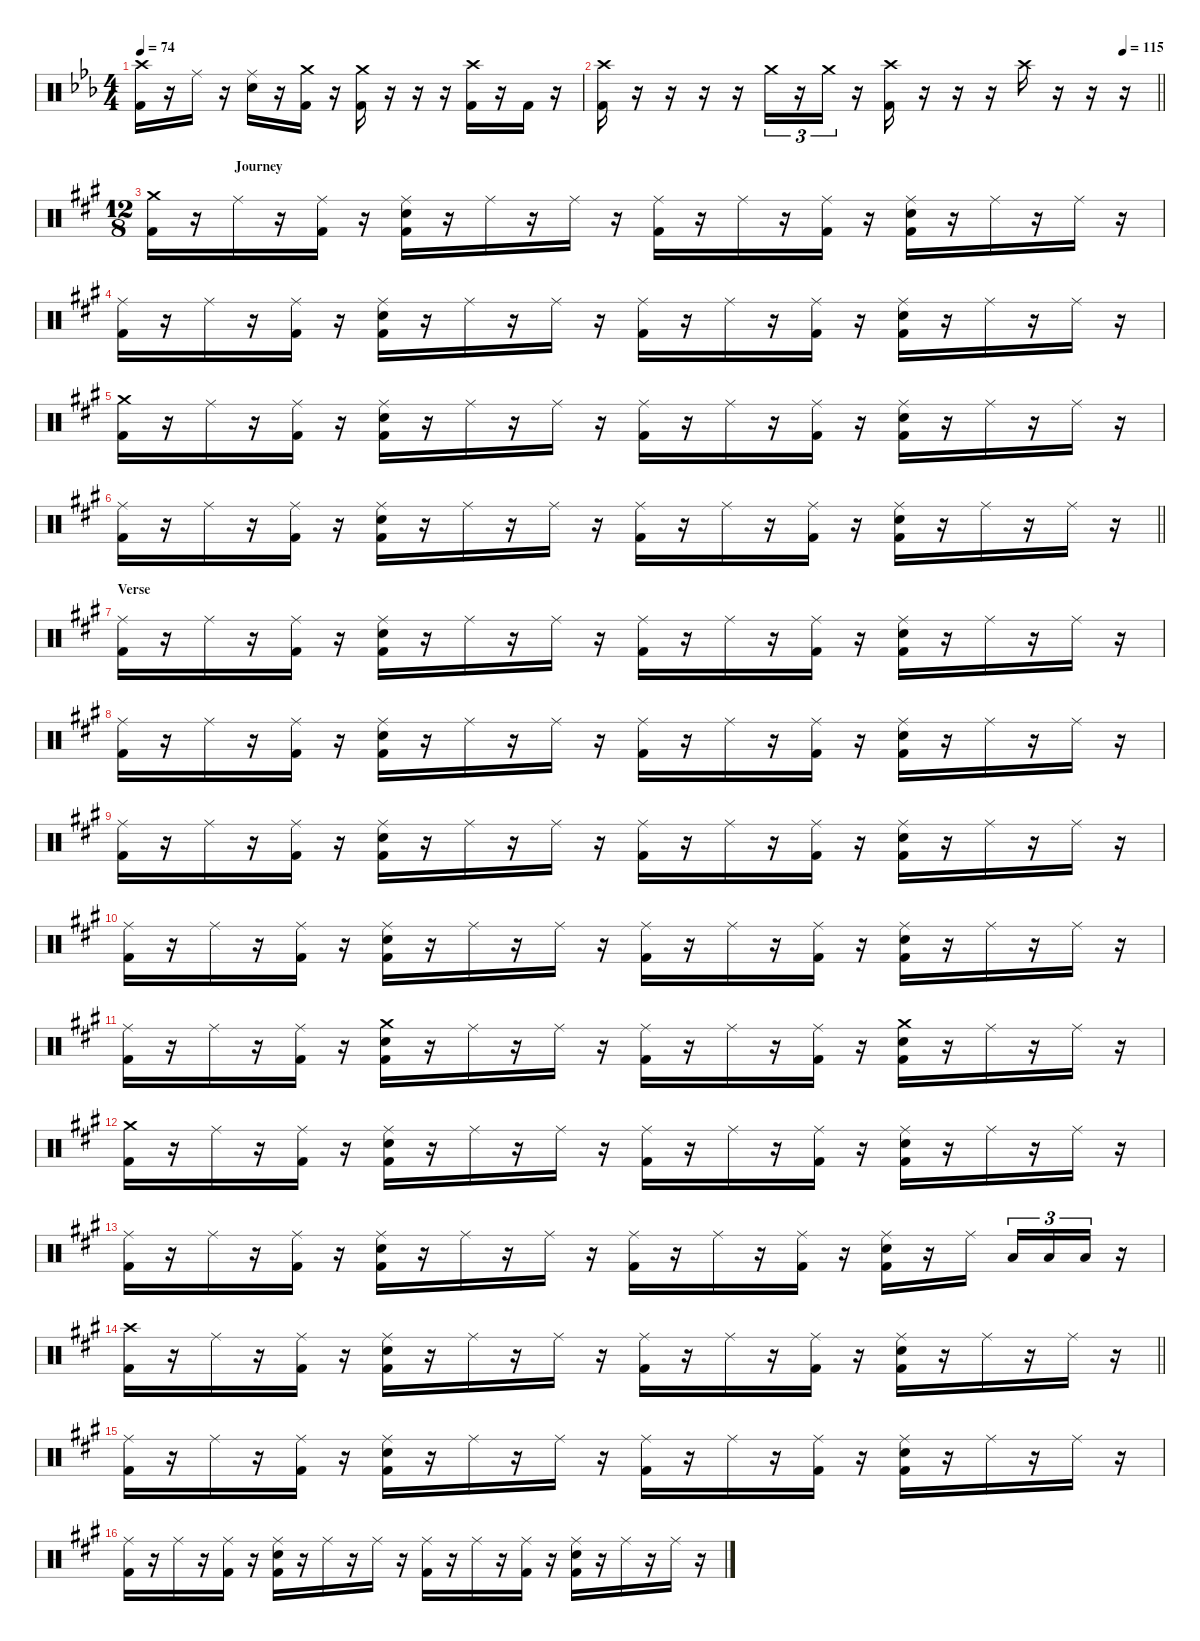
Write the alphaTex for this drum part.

\defaultSystemsLayout 4
\hideDynamics
\bracketExtendMode nobrackets
\singleTrackTrackNamePolicy hidden
\multiTrackTrackNamePolicy hidden
\firstSystemTrackNameMode fullname
\otherSystemsTrackNameOrientation horizontal
\track ("DRUMS" "drm.") {instrument percussion}
\staff {score}
\articulation defaults
\ts (4 4)
\tempo 74
\clef neutral
\ks eb
("Crash high (hit)"{acc forcenatural} "Kick (hit) 2"{acc forcenatural}).16{dy f beam Down} r.16{beam Down} "Ride (middle)"{acc forcenatural}.16{beam Down} r.16{beam Down} ("Ride (middle)"{acc forcenatural} "Snare (hit) 2"{acc forcenatural}).16{beam Down} r.16{beam Down} ("Crash medium (hit)"{acc forcenatural} "Kick (hit) 2"{acc forcenatural}).16{dy ff beam Down} r.16{beam Down} ("Crash medium (hit)"{acc forcenatural} "Kick (hit) 2"{acc forcenatural}).16{dy f beam Down} r.16{beam Down} r.16{beam Down} r.16{beam Down} ("Crash high (hit)"{acc forcenatural} "Kick (hit) 2"{acc forcenatural}).16{beam Down} r.16{beam Down} "Kick (hit) 2"{acc forcenatural}.16{dy ff beam Down} r.16{beam Down} |
\tempo (115 0.9375)
\barLineRight lightlight
("Crash high (hit)"{acc forcenatural} "Kick (hit) 2"{acc forcenatural}).16{dy f beam Down} r.16{beam Down} r.16{beam Down} r.16{beam Down} r.16{beam Down} "Crash medium (hit)"{acc forcenatural}.16{tu (3 2) dy ff beam Down} r.16{tu (3 2) beam Down} "Crash medium (hit)"{acc forcenatural}.16{tu (3 2) beam Down} r.16{beam Down} ("Crash high (hit)"{acc forcenatural} "Kick (hit) 2"{acc forcenatural}).16{dy f beam Down} r.16{beam Down} r.16{beam Down} r.16{beam Down} "Crash high (hit)"{acc forcenatural}.16{dy ff beam Down} r.16{beam Down} r.16{beam Down} r.16{beam Down} |
\ts (12 8)
\beaming (8 3 3 3 3)
\section ("" "                         Journey")
\ks a
("Crash medium (hit)"{acc forcenatural} "Kick (hit) 2"{acc forcenatural}).16{dy f beam Down} r.16{beam Down} "Ride (middle)"{acc forcenatural}.16{dy ff beam Down} r.16{beam Down} ("Ride (middle)"{acc forcenatural} "Kick (hit) 2"{acc forcenatural}).16{beam Down} r.16{beam Down} ("Ride (middle)"{acc forcenatural} "Snare (hit) 2"{acc forcenatural} "Kick (hit) 2"{acc forcenatural}).16{dy f beam Down} r.16{beam Down} "Ride (middle)"{acc forcenatural}.16{dy ff beam Down} r.16{beam Down} "Ride (middle)"{acc forcenatural}.16{beam Down} r.16{beam Down} ("Ride (middle)"{acc forcenatural} "Kick (hit) 2"{acc forcenatural}).16{dy f beam Down} r.16{beam Down} "Ride (middle)"{acc forcenatural}.16{dy ff beam Down} r.16{beam Down} ("Ride (middle)"{acc forcenatural} "Kick (hit) 2"{acc forcenatural}).16{beam Down} r.16{beam Down} ("Ride (middle)"{acc forcenatural} "Snare (hit) 2"{acc forcenatural} "Kick (hit) 2"{acc forcenatural}).16{dy f beam Down} r.16{beam Down} "Ride (middle)"{acc forcenatural}.16{dy ff beam Down} r.16{beam Down} "Ride (middle)"{acc forcenatural}.16{beam Down} r.16{beam Down} |
("Ride (middle)"{acc forcenatural} "Kick (hit) 2"{acc forcenatural}).16{dy f beam Down} r.16{beam Down} "Ride (middle)"{acc forcenatural}.16{dy ff beam Down} r.16{beam Down} ("Ride (middle)"{acc forcenatural} "Kick (hit) 2"{acc forcenatural}).16{beam Down} r.16{beam Down} ("Ride (middle)"{acc forcenatural} "Snare (hit) 2"{acc forcenatural} "Kick (hit) 2"{acc forcenatural}).16{dy f beam Down} r.16{beam Down} "Ride (middle)"{acc forcenatural}.16{dy ff beam Down} r.16{beam Down} "Ride (middle)"{acc forcenatural}.16{beam Down} r.16{beam Down} ("Ride (middle)"{acc forcenatural} "Kick (hit) 2"{acc forcenatural}).16{dy f beam Down} r.16{beam Down} "Ride (middle)"{acc forcenatural}.16{dy ff beam Down} r.16{beam Down} ("Ride (middle)"{acc forcenatural} "Kick (hit) 2"{acc forcenatural}).16{beam Down} r.16{beam Down} ("Ride (middle)"{acc forcenatural} "Snare (hit) 2"{acc forcenatural} "Kick (hit) 2"{acc forcenatural}).16{dy f beam Down} r.16{beam Down} "Ride (middle)"{acc forcenatural}.16{dy ff beam Down} r.16{beam Down} "Ride (middle)"{acc forcenatural}.16{beam Down} r.16{beam Down} |
("Crash medium (hit)"{acc forcenatural} "Kick (hit) 2"{acc forcenatural}).16{dy f beam Down} r.16{beam Down} "Ride (middle)"{acc forcenatural}.16{dy ff beam Down} r.16{beam Down} ("Ride (middle)"{acc forcenatural} "Kick (hit) 2"{acc forcenatural}).16{beam Down} r.16{beam Down} ("Ride (middle)"{acc forcenatural} "Snare (hit) 2"{acc forcenatural} "Kick (hit) 2"{acc forcenatural}).16{dy f beam Down} r.16{beam Down} "Ride (middle)"{acc forcenatural}.16{dy ff beam Down} r.16{beam Down} "Ride (middle)"{acc forcenatural}.16{beam Down} r.16{beam Down} ("Ride (middle)"{acc forcenatural} "Kick (hit) 2"{acc forcenatural}).16{dy f beam Down} r.16{beam Down} "Ride (middle)"{acc forcenatural}.16{dy ff beam Down} r.16{beam Down} ("Ride (middle)"{acc forcenatural} "Kick (hit) 2"{acc forcenatural}).16{beam Down} r.16{beam Down} ("Ride (middle)"{acc forcenatural} "Snare (hit) 2"{acc forcenatural} "Kick (hit) 2"{acc forcenatural}).16{dy f beam Down} r.16{beam Down} "Ride (middle)"{acc forcenatural}.16{dy ff beam Down} r.16{beam Down} "Ride (middle)"{acc forcenatural}.16{beam Down} r.16{beam Down} |
\barLineRight lightlight
("Ride (middle)"{acc forcenatural} "Kick (hit) 2"{acc forcenatural}).16{dy f beam Down} r.16{beam Down} "Ride (middle)"{acc forcenatural}.16{dy ff beam Down} r.16{beam Down} ("Ride (middle)"{acc forcenatural} "Kick (hit) 2"{acc forcenatural}).16{beam Down} r.16{beam Down} ("Ride (middle)"{acc forcenatural} "Snare (hit) 2"{acc forcenatural} "Kick (hit) 2"{acc forcenatural}).16{dy f beam Down} r.16{beam Down} "Ride (middle)"{acc forcenatural}.16{dy ff beam Down} r.16{beam Down} "Ride (middle)"{acc forcenatural}.16{beam Down} r.16{beam Down} ("Ride (middle)"{acc forcenatural} "Kick (hit) 2"{acc forcenatural}).16{dy f beam Down} r.16{beam Down} "Ride (middle)"{acc forcenatural}.16{dy ff beam Down} r.16{beam Down} ("Ride (middle)"{acc forcenatural} "Kick (hit) 2"{acc forcenatural}).16{beam Down} r.16{beam Down} ("Ride (middle)"{acc forcenatural} "Snare (hit) 2"{acc forcenatural} "Kick (hit) 2"{acc forcenatural}).16{dy f beam Down} r.16{beam Down} "Ride (middle)"{acc forcenatural}.16{dy ff beam Down} r.16{beam Down} "Ride (middle)"{acc forcenatural}.16{beam Down} r.16{beam Down} |
\section ("" "Verse")
("Ride (middle)"{acc forcenatural} "Kick (hit) 2"{acc forcenatural}).16{dy f beam Down} r.16{beam Down} "Ride (middle)"{acc forcenatural}.16{dy ff beam Down} r.16{beam Down} ("Ride (middle)"{acc forcenatural} "Kick (hit) 2"{acc forcenatural}).16{beam Down} r.16{beam Down} ("Ride (middle)"{acc forcenatural} "Snare (hit) 2"{acc forcenatural} "Kick (hit) 2"{acc forcenatural}).16{dy f beam Down} r.16{beam Down} "Ride (middle)"{acc forcenatural}.16{dy ff beam Down} r.16{beam Down} "Ride (middle)"{acc forcenatural}.16{beam Down} r.16{beam Down} ("Ride (middle)"{acc forcenatural} "Kick (hit) 2"{acc forcenatural}).16{dy f beam Down} r.16{beam Down} "Ride (middle)"{acc forcenatural}.16{dy ff beam Down} r.16{beam Down} ("Ride (middle)"{acc forcenatural} "Kick (hit) 2"{acc forcenatural}).16{beam Down} r.16{beam Down} ("Ride (middle)"{acc forcenatural} "Snare (hit) 2"{acc forcenatural} "Kick (hit) 2"{acc forcenatural}).16{dy f beam Down} r.16{beam Down} "Ride (middle)"{acc forcenatural}.16{dy ff beam Down} r.16{beam Down} "Ride (middle)"{acc forcenatural}.16{beam Down} r.16{beam Down} |
("Ride (middle)"{acc forcenatural} "Kick (hit) 2"{acc forcenatural}).16{dy f beam Down} r.16{beam Down} "Ride (middle)"{acc forcenatural}.16{dy ff beam Down} r.16{beam Down} ("Ride (middle)"{acc forcenatural} "Kick (hit) 2"{acc forcenatural}).16{beam Down} r.16{beam Down} ("Ride (middle)"{acc forcenatural} "Snare (hit) 2"{acc forcenatural} "Kick (hit) 2"{acc forcenatural}).16{dy f beam Down} r.16{beam Down} "Ride (middle)"{acc forcenatural}.16{dy ff beam Down} r.16{beam Down} "Ride (middle)"{acc forcenatural}.16{beam Down} r.16{beam Down} ("Ride (middle)"{acc forcenatural} "Kick (hit) 2"{acc forcenatural}).16{dy f beam Down} r.16{beam Down} "Ride (middle)"{acc forcenatural}.16{dy ff beam Down} r.16{beam Down} ("Ride (middle)"{acc forcenatural} "Kick (hit) 2"{acc forcenatural}).16{beam Down} r.16{beam Down} ("Ride (middle)"{acc forcenatural} "Snare (hit) 2"{acc forcenatural} "Kick (hit) 2"{acc forcenatural}).16{dy f beam Down} r.16{beam Down} "Ride (middle)"{acc forcenatural}.16{dy ff beam Down} r.16{beam Down} "Ride (middle)"{acc forcenatural}.16{beam Down} r.16{beam Down} |
("Ride (middle)"{acc forcenatural} "Kick (hit) 2"{acc forcenatural}).16{dy f beam Down} r.16{beam Down} "Ride (middle)"{acc forcenatural}.16{dy ff beam Down} r.16{beam Down} ("Ride (middle)"{acc forcenatural} "Kick (hit) 2"{acc forcenatural}).16{beam Down} r.16{beam Down} ("Ride (middle)"{acc forcenatural} "Snare (hit) 2"{acc forcenatural} "Kick (hit) 2"{acc forcenatural}).16{dy f beam Down} r.16{beam Down} "Ride (middle)"{acc forcenatural}.16{dy ff beam Down} r.16{beam Down} "Ride (middle)"{acc forcenatural}.16{beam Down} r.16{beam Down} ("Ride (middle)"{acc forcenatural} "Kick (hit) 2"{acc forcenatural}).16{dy f beam Down} r.16{beam Down} "Ride (middle)"{acc forcenatural}.16{dy ff beam Down} r.16{beam Down} ("Ride (middle)"{acc forcenatural} "Kick (hit) 2"{acc forcenatural}).16{beam Down} r.16{beam Down} ("Ride (middle)"{acc forcenatural} "Snare (hit) 2"{acc forcenatural} "Kick (hit) 2"{acc forcenatural}).16{dy f beam Down} r.16{beam Down} "Ride (middle)"{acc forcenatural}.16{dy ff beam Down} r.16{beam Down} "Ride (middle)"{acc forcenatural}.16{beam Down} r.16{beam Down} |
("Ride (middle)"{acc forcenatural} "Kick (hit) 2"{acc forcenatural}).16{dy f beam Down} r.16{beam Down} "Ride (middle)"{acc forcenatural}.16{dy ff beam Down} r.16{beam Down} ("Ride (middle)"{acc forcenatural} "Kick (hit) 2"{acc forcenatural}).16{beam Down} r.16{beam Down} ("Ride (middle)"{acc forcenatural} "Snare (hit) 2"{acc forcenatural} "Kick (hit) 2"{acc forcenatural}).16{dy f beam Down} r.16{beam Down} "Ride (middle)"{acc forcenatural}.16{dy ff beam Down} r.16{beam Down} "Ride (middle)"{acc forcenatural}.16{beam Down} r.16{beam Down} ("Ride (middle)"{acc forcenatural} "Kick (hit) 2"{acc forcenatural}).16{dy f beam Down} r.16{beam Down} "Ride (middle)"{acc forcenatural}.16{dy ff beam Down} r.16{beam Down} ("Ride (middle)"{acc forcenatural} "Kick (hit) 2"{acc forcenatural}).16{beam Down} r.16{beam Down} ("Ride (middle)"{acc forcenatural} "Snare (hit) 2"{acc forcenatural} "Kick (hit) 2"{acc forcenatural}).16{dy f beam Down} r.16{beam Down} "Ride (middle)"{acc forcenatural}.16{dy ff beam Down} r.16{beam Down} "Ride (middle)"{acc forcenatural}.16{beam Down} r.16{beam Down} |
("Ride (middle)"{acc forcenatural} "Kick (hit) 2"{acc forcenatural}).16{dy f beam Down} r.16{beam Down} "Ride (middle)"{acc forcenatural}.16{dy ff beam Down} r.16{beam Down} ("Ride (middle)"{acc forcenatural} "Kick (hit) 2"{acc forcenatural}).16{beam Down} r.16{beam Down} ("Crash medium (hit)"{acc forcenatural} "Snare (hit) 2"{acc forcenatural} "Kick (hit) 2"{acc forcenatural}).16{dy f beam Down} r.16{beam Down} "Ride (middle)"{acc forcenatural}.16{dy ff beam Down} r.16{beam Down} "Ride (middle)"{acc forcenatural}.16{beam Down} r.16{beam Down} ("Ride (middle)"{acc forcenatural} "Kick (hit) 2"{acc forcenatural}).16{dy f beam Down} r.16{beam Down} "Ride (middle)"{acc forcenatural}.16{dy ff beam Down} r.16{beam Down} ("Ride (middle)"{acc forcenatural} "Kick (hit) 2"{acc forcenatural}).16{beam Down} r.16{beam Down} ("Crash medium (hit)"{acc forcenatural} "Snare (hit) 2"{acc forcenatural} "Kick (hit) 2"{acc forcenatural}).16{dy f beam Down} r.16{beam Down} "Ride (middle)"{acc forcenatural}.16{dy ff beam Down} r.16{beam Down} "Ride (middle)"{acc forcenatural}.16{beam Down} r.16{beam Down} |
("Crash medium (hit)"{acc forcenatural} "Kick (hit) 2"{acc forcenatural}).16{dy f beam Down} r.16{beam Down} "Ride (middle)"{acc forcenatural}.16{dy ff beam Down} r.16{beam Down} ("Ride (middle)"{acc forcenatural} "Kick (hit) 2"{acc forcenatural}).16{beam Down} r.16{beam Down} ("Ride (middle)"{acc forcenatural} "Snare (hit) 2"{acc forcenatural} "Kick (hit) 2"{acc forcenatural}).16{dy f beam Down} r.16{beam Down} "Ride (middle)"{acc forcenatural}.16{dy ff beam Down} r.16{beam Down} "Ride (middle)"{acc forcenatural}.16{beam Down} r.16{beam Down} ("Ride (middle)"{acc forcenatural} "Kick (hit) 2"{acc forcenatural}).16{dy f beam Down} r.16{beam Down} "Ride (middle)"{acc forcenatural}.16{dy ff beam Down} r.16{beam Down} ("Ride (middle)"{acc forcenatural} "Kick (hit) 2"{acc forcenatural}).16{beam Down} r.16{beam Down} ("Ride (middle)"{acc forcenatural} "Snare (hit) 2"{acc forcenatural} "Kick (hit) 2"{acc forcenatural}).16{dy f beam Down} r.16{beam Down} "Ride (middle)"{acc forcenatural}.16{dy ff beam Down} r.16{beam Down} "Ride (middle)"{acc forcenatural}.16{beam Down} r.16{beam Down} |
("Ride (middle)"{acc forcenatural} "Kick (hit) 2"{acc forcenatural}).16{dy f beam Down} r.16{beam Down} "Ride (middle)"{acc forcenatural}.16{dy ff beam Down} r.16{beam Down} ("Ride (middle)"{acc forcenatural} "Kick (hit) 2"{acc forcenatural}).16{beam Down} r.16{beam Down} ("Ride (middle)"{acc forcenatural} "Snare (hit) 2"{acc forcenatural} "Kick (hit) 2"{acc forcenatural}).16{dy f beam Down} r.16{beam Down} "Ride (middle)"{acc forcenatural}.16{dy ff beam Down} r.16{beam Down} "Ride (middle)"{acc forcenatural}.16{beam Down} r.16{beam Down} ("Ride (middle)"{acc forcenatural} "Kick (hit) 2"{acc forcenatural}).16{dy f beam Down} r.16{beam Down} "Ride (middle)"{acc forcenatural}.16{dy ff beam Down} r.16{beam Down} ("Ride (middle)"{acc forcenatural} "Kick (hit) 2"{acc forcenatural}).16{beam Down} r.16{beam Down} ("Ride (middle)"{acc forcenatural} "Snare (hit) 2"{acc forcenatural} "Kick (hit) 2"{acc forcenatural}).16{dy f beam Down} r.16{beam Down} "Ride (middle)"{acc forcenatural}.16{dy ff beam Down} "Low Tom (hit)"{acc forcenatural}.16{tu (3 2) beam Up} "Low Tom (hit)"{acc forcenatural}.16{tu (3 2) dy f beam Up} "Low Tom (hit)"{acc forcenatural}.16{tu (3 2) beam Up} r.16{beam Up} |
\barLineRight lightlight
("Crash high (hit)"{acc forcenatural} "Kick (hit) 2"{acc forcenatural}).16{beam Down} r.16{beam Down} "Ride (middle)"{acc forcenatural}.16{dy ff beam Down} r.16{beam Down} ("Ride (middle)"{acc forcenatural} "Kick (hit) 2"{acc forcenatural}).16{beam Down} r.16{beam Down} ("Ride (middle)"{acc forcenatural} "Snare (hit) 2"{acc forcenatural} "Kick (hit) 2"{acc forcenatural}).16{dy f beam Down} r.16{beam Down} "Ride (middle)"{acc forcenatural}.16{dy ff beam Down} r.16{beam Down} "Ride (middle)"{acc forcenatural}.16{beam Down} r.16{beam Down} ("Ride (middle)"{acc forcenatural} "Kick (hit) 2"{acc forcenatural}).16{dy f beam Down} r.16{beam Down} "Ride (middle)"{acc forcenatural}.16{dy ff beam Down} r.16{beam Down} ("Ride (middle)"{acc forcenatural} "Kick (hit) 2"{acc forcenatural}).16{beam Down} r.16{beam Down} ("Ride (middle)"{acc forcenatural} "Snare (hit) 2"{acc forcenatural} "Kick (hit) 2"{acc forcenatural}).16{dy f beam Down} r.16{beam Down} "Ride (middle)"{acc forcenatural}.16{dy ff beam Down} r.16{beam Down} "Ride (middle)"{acc forcenatural}.16{beam Down} r.16{beam Down} |
("Ride (middle)"{acc forcenatural} "Kick (hit) 2"{acc forcenatural}).16{dy f beam Down} r.16{beam Down} "Ride (middle)"{acc forcenatural}.16{dy ff beam Down} r.16{beam Down} ("Ride (middle)"{acc forcenatural} "Kick (hit) 2"{acc forcenatural}).16{beam Down} r.16{beam Down} ("Ride (middle)"{acc forcenatural} "Snare (hit) 2"{acc forcenatural} "Kick (hit) 2"{acc forcenatural}).16{dy f beam Down} r.16{beam Down} "Ride (middle)"{acc forcenatural}.16{dy ff beam Down} r.16{beam Down} "Ride (middle)"{acc forcenatural}.16{beam Down} r.16{beam Down} ("Ride (middle)"{acc forcenatural} "Kick (hit) 2"{acc forcenatural}).16{dy f beam Down} r.16{beam Down} "Ride (middle)"{acc forcenatural}.16{dy ff beam Down} r.16{beam Down} ("Ride (middle)"{acc forcenatural} "Kick (hit) 2"{acc forcenatural}).16{beam Down} r.16{beam Down} ("Ride (middle)"{acc forcenatural} "Snare (hit) 2"{acc forcenatural} "Kick (hit) 2"{acc forcenatural}).16{dy f beam Down} r.16{beam Down} "Ride (middle)"{acc forcenatural}.16{dy ff beam Down} r.16{beam Down} "Ride (middle)"{acc forcenatural}.16{beam Down} r.16{beam Down} |
("Ride (middle)"{acc forcenatural} "Kick (hit) 2"{acc forcenatural}).16{dy f beam Down} r.16{beam Down} "Ride (middle)"{acc forcenatural}.16{dy ff beam Down} r.16{beam Down} ("Ride (middle)"{acc forcenatural} "Kick (hit) 2"{acc forcenatural}).16{beam Down} r.16{beam Down} ("Ride (middle)"{acc forcenatural} "Snare (hit) 2"{acc forcenatural} "Kick (hit) 2"{acc forcenatural}).16{dy f beam Down} r.16{beam Down} "Ride (middle)"{acc forcenatural}.16{dy ff beam Down} r.16{beam Down} "Ride (middle)"{acc forcenatural}.16{beam Down} r.16{beam Down} ("Ride (middle)"{acc forcenatural} "Kick (hit) 2"{acc forcenatural}).16{dy f beam Down} r.16{beam Down} "Ride (middle)"{acc forcenatural}.16{dy ff beam Down} r.16{beam Down} ("Ride (middle)"{acc forcenatural} "Kick (hit) 2"{acc forcenatural}).16{beam Down} r.16{beam Down} ("Ride (middle)"{acc forcenatural} "Snare (hit) 2"{acc forcenatural} "Kick (hit) 2"{acc forcenatural}).16{dy f beam Down} r.16{beam Down} "Ride (middle)"{acc forcenatural}.16{dy ff beam Down} r.16{beam Down} "Ride (middle)"{acc forcenatural}.16{beam Down} r.16{beam Down}
